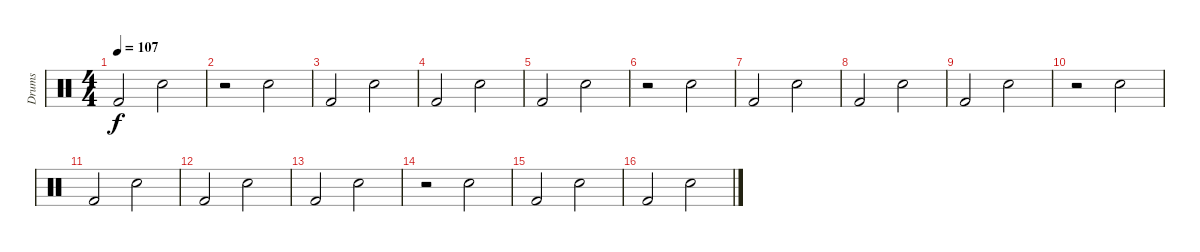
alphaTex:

\track ("Drums" "Drums") {instrument percussion}
\staff {score}
\articulation defaults
\ts (4 4)
\tempo 107
\clef neutral
\ks c "Kick (hit) 2".2{dy f} "Snare (hit) 2".2
|
r.2 "Snare (hit) 2".2 |
"Kick (hit) 2".2 "Snare (hit) 2".2 |
"Kick (hit) 2".2 "Snare (hit) 2".2 |
"Kick (hit) 2".2 "Snare (hit) 2".2 |
r.2 "Snare (hit) 2".2 |
"Kick (hit) 2".2 "Snare (hit) 2".2 |
"Kick (hit) 2".2 "Snare (hit) 2".2 |
"Kick (hit) 2".2 "Snare (hit) 2".2 |
r.2 "Snare (hit) 2".2 |
"Kick (hit) 2".2 "Snare (hit) 2".2 |
"Kick (hit) 2".2 "Snare (hit) 2".2 |
"Kick (hit) 2".2 "Snare (hit) 2".2 |
r.2 "Snare (hit) 2".2 |
"Kick (hit) 2".2 "Snare (hit) 2".2 |
"Kick (hit) 2".2 "Snare (hit) 2".2
